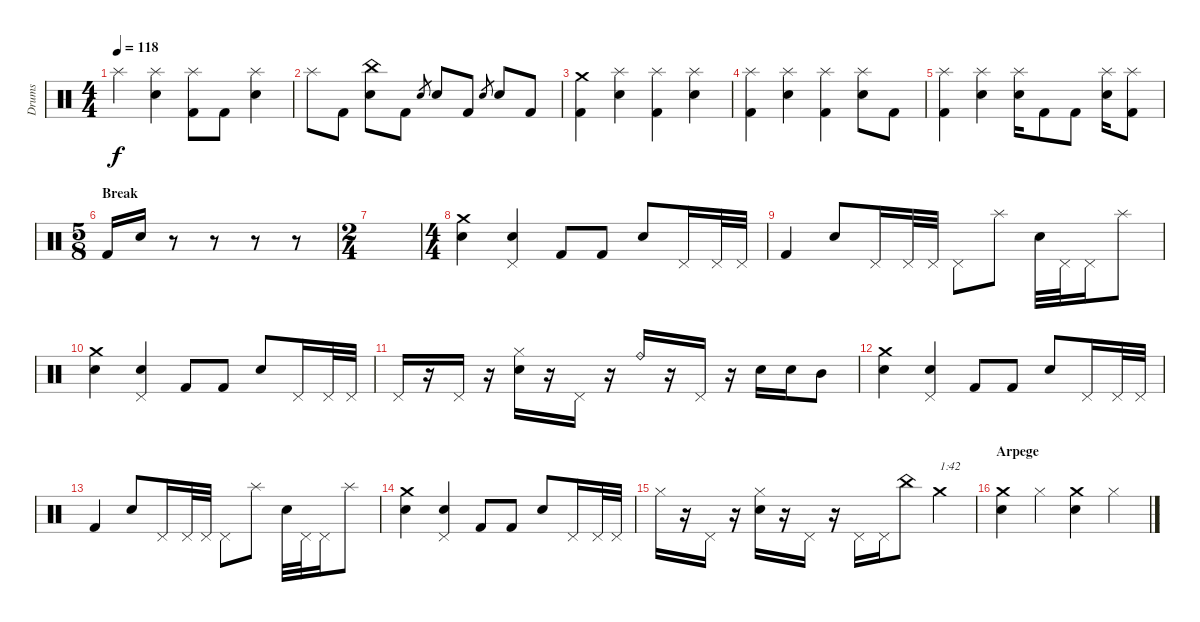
\track ("Drums" "Drums") {instrument percussion}
\staff {score}
\articulation defaults
\ts (4 4)
\tempo 118
\clef neutral
\ks c "Splash (hit)".4{dy f}
("Splash (hit)" "Electric Snare (hit)").4 ("Splash (hit)" "Kick (hit) 2").8 "Kick (hit) 2".8 ("Splash (hit)" "Electric Snare (hit)").4 |
"Splash (hit)".8 "Kick (hit) 2".8 ("China (hit)" "Electric Snare (hit)").8 "Kick (hit) 2".8 "Electric Snare (hit)".8{gr} "Electric Snare (hit)".8 "Kick (hit) 2".8 "Electric Snare (hit)".8{gr} "Electric Snare (hit)".8 "Kick (hit) 2".8 |
("Crash medium (hit)" "Kick (hit) 2").4 ("Splash (hit)" "Electric Snare (hit)").4 ("Splash (hit)" "Kick (hit) 2").4 ("Splash (hit)" "Electric Snare (hit)").4 |
("Splash (hit)" "Kick (hit) 2").4 ("Splash (hit)" "Electric Snare (hit)").4 ("Splash (hit)" "Kick (hit) 2").4 ("Splash (hit)" "Electric Snare (hit)").8 "Kick (hit) 2".8 |
("Splash (hit)" "Kick (hit) 2").4 ("Splash (hit)" "Electric Snare (hit)").4 ("Splash (hit)" "Electric Snare (hit)").16 "Kick (hit) 2".8 "Kick (hit) 2".8 ("Splash (hit)" "Electric Snare (hit)").16 ("Splash (hit)" "Kick (hit) 2").8 |
\ts (5 8)
\section ("" "Break")
"Kick (hit) 2".16 "Electric Snare (hit)".16 r.8 r.8 r.8 r.8 |
\ts (2 4)
|
\ts (4 4)
("Crash medium (hit)" "Snare (hit) 2").4 ("Pedal Hi-Hat (hit)" "Electric Snare (hit)").4 "Kick (hit) 2".8 "Kick (hit) 2".8 "Electric Snare (hit)".8 "Pedal Hi-Hat (hit)".16 "Pedal Hi-Hat (hit)".32 "Pedal Hi-Hat (hit)".32 |
"Kick (hit) 2".4 "Electric Snare (hit)".8 "Pedal Hi-Hat (hit)".16 "Pedal Hi-Hat (hit)".32 "Pedal Hi-Hat (hit)".32 "Pedal Hi-Hat (hit)".8 "Splash (hit)".8 "Electric Snare (hit)".32 "Pedal Hi-Hat (hit)".32 "Pedal Hi-Hat (hit)".16 "Splash (hit)".8 |
("Crash medium (hit)" "Snare (hit) 2").4 ("Pedal Hi-Hat (hit)" "Electric Snare (hit)").4 "Kick (hit) 2".8 "Kick (hit) 2".8 "Electric Snare (hit)".8 "Pedal Hi-Hat (hit)".16 "Pedal Hi-Hat (hit)".32 "Pedal Hi-Hat (hit)".32 |
"Pedal Hi-Hat (hit)".16 r.16 "Pedal Hi-Hat (hit)".16 r.16 ("Hi-Hat (closed)" "Electric Snare (hit)").16 r.16 "Pedal Hi-Hat (hit)".16 r.16 "Ride (bell)".16 r.16 "Pedal Hi-Hat (hit)".16 r.16 "Electric Snare (hit)".16 "Electric Snare (hit)".16 "Mid Tom (hit)".8 |
("Crash medium (hit)" "Snare (hit) 2").4 ("Pedal Hi-Hat (hit)" "Electric Snare (hit)").4 "Kick (hit) 2".8 "Kick (hit) 2".8 "Electric Snare (hit)".8 "Pedal Hi-Hat (hit)".16 "Pedal Hi-Hat (hit)".32 "Pedal Hi-Hat (hit)".32 |
"Kick (hit) 2".4 "Electric Snare (hit)".8 "Pedal Hi-Hat (hit)".16 "Pedal Hi-Hat (hit)".32 "Pedal Hi-Hat (hit)".32 "Pedal Hi-Hat (hit)".8 "Splash (hit)".8 "Electric Snare (hit)".32 "Pedal Hi-Hat (hit)".32 "Pedal Hi-Hat (hit)".16 "Splash (hit)".8 |
("Crash medium (hit)" "Snare (hit) 2").4 ("Pedal Hi-Hat (hit)" "Electric Snare (hit)").4 "Kick (hit) 2".8 "Kick (hit) 2".8 "Electric Snare (hit)".8 "Pedal Hi-Hat (hit)".16 "Pedal Hi-Hat (hit)".32 "Pedal Hi-Hat (hit)".32 |
"Hi-Hat (closed)".16 r.16 "Pedal Hi-Hat (hit)".16 r.16 ("Hi-Hat (closed)" "Electric Snare (hit)").16 r.16 "Pedal Hi-Hat (hit)".16 r.16 "Pedal Hi-Hat (hit)".16 "Pedal Hi-Hat (hit)".16 "China (hit)".8 "Crash medium (hit)".4{txt "1:42"} |
\section ("" "Arpege")
("Crash medium (hit)" "Snare (hit) 2").4 "Hi-Hat (closed)".4 ("Crash medium (hit)" "Electric Snare (hit)").4 "Hi-Hat (closed)".4
